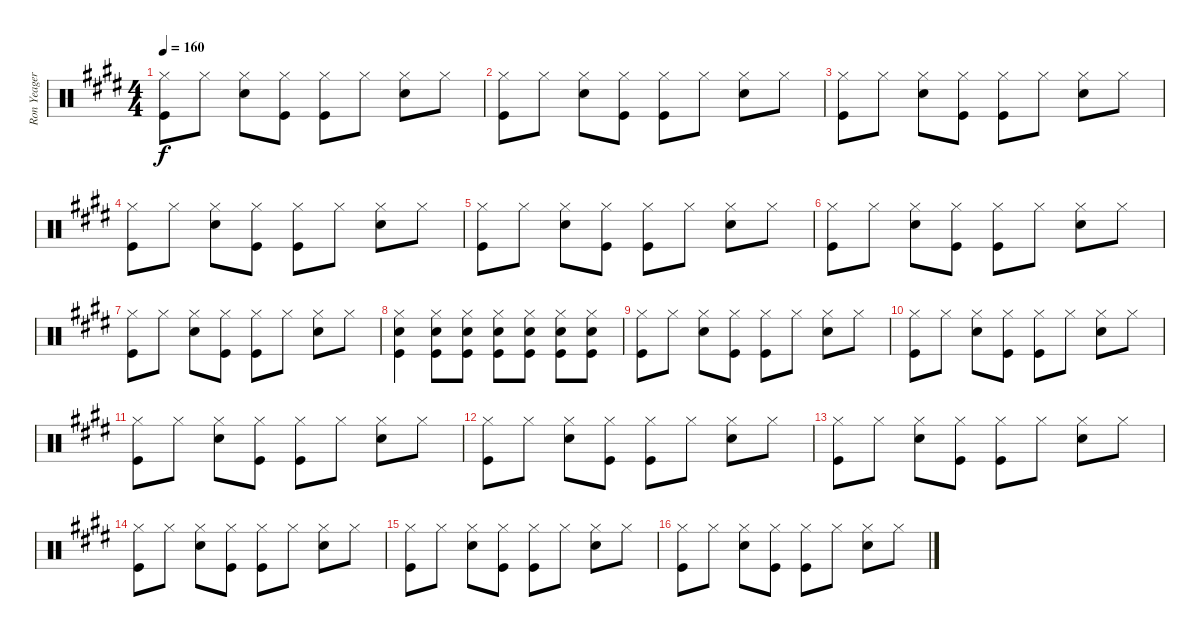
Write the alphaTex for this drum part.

\track ("Ron Yeager Drums" "Ron Yeager") {instrument percussion}
\staff {score}
\articulation defaults
\ts (4 4)
\tempo 160
\clef neutral
\ks e
("Hi-Hat (closed)" "Kick (hit)").8{dy f} "Hi-Hat (closed)".8 ("Hi-Hat (closed)" "Snare (hit) 2").8 ("Hi-Hat (closed)" "Kick (hit)").8 ("Hi-Hat (closed)" "Kick (hit)").8 "Hi-Hat (closed)".8 ("Hi-Hat (closed)" "Snare (hit) 2").8 "Hi-Hat (closed)".8 |
("Hi-Hat (closed)" "Kick (hit)").8 "Hi-Hat (closed)".8 ("Hi-Hat (closed)" "Snare (hit) 2").8 ("Hi-Hat (closed)" "Kick (hit)").8 ("Hi-Hat (closed)" "Kick (hit)").8 "Hi-Hat (closed)".8 ("Hi-Hat (closed)" "Snare (hit) 2").8 "Hi-Hat (closed)".8 |
("Hi-Hat (closed)" "Kick (hit)").8 "Hi-Hat (closed)".8 ("Hi-Hat (closed)" "Snare (hit) 2").8 ("Hi-Hat (closed)" "Kick (hit)").8 ("Hi-Hat (closed)" "Kick (hit)").8 "Hi-Hat (closed)".8 ("Hi-Hat (closed)" "Snare (hit) 2").8 "Hi-Hat (closed)".8 |
("Hi-Hat (closed)" "Kick (hit)").8 "Hi-Hat (closed)".8 ("Hi-Hat (closed)" "Snare (hit) 2").8 ("Hi-Hat (closed)" "Kick (hit)").8 ("Hi-Hat (closed)" "Kick (hit)").8 "Hi-Hat (closed)".8 ("Hi-Hat (closed)" "Snare (hit) 2").8 "Hi-Hat (closed)".8 |
("Hi-Hat (closed)" "Kick (hit)").8 "Hi-Hat (closed)".8 ("Hi-Hat (closed)" "Snare (hit) 2").8 ("Hi-Hat (closed)" "Kick (hit)").8 ("Hi-Hat (closed)" "Kick (hit)").8 "Hi-Hat (closed)".8 ("Hi-Hat (closed)" "Snare (hit) 2").8 "Hi-Hat (closed)".8 |
("Hi-Hat (closed)" "Kick (hit)").8 "Hi-Hat (closed)".8 ("Hi-Hat (closed)" "Snare (hit) 2").8 ("Hi-Hat (closed)" "Kick (hit)").8 ("Hi-Hat (closed)" "Kick (hit)").8 "Hi-Hat (closed)".8 ("Hi-Hat (closed)" "Snare (hit) 2").8 "Hi-Hat (closed)".8 |
("Hi-Hat (closed)" "Kick (hit)").8 "Hi-Hat (closed)".8 ("Hi-Hat (closed)" "Snare (hit) 2").8 ("Hi-Hat (closed)" "Kick (hit)").8 ("Hi-Hat (closed)" "Kick (hit)").8 "Hi-Hat (closed)".8 ("Hi-Hat (closed)" "Snare (hit) 2").8 "Hi-Hat (closed)".8 |
("Hi-Hat (closed)" "Snare (hit) 2" "Kick (hit)").4 ("Hi-Hat (closed)" "Snare (hit) 2" "Kick (hit)").8 ("Hi-Hat (closed)" "Snare (hit) 2" "Kick (hit)").8 ("Hi-Hat (closed)" "Snare (hit) 2" "Kick (hit)").8 ("Hi-Hat (closed)" "Snare (hit) 2" "Kick (hit)").8 ("Hi-Hat (closed)" "Snare (hit) 2" "Kick (hit)").8 ("Hi-Hat (closed)" "Snare (hit) 2" "Kick (hit)").8 |
("Hi-Hat (closed)" "Kick (hit)").8 "Hi-Hat (closed)".8 ("Hi-Hat (closed)" "Snare (hit) 2").8 ("Hi-Hat (closed)" "Kick (hit)").8 ("Hi-Hat (closed)" "Kick (hit)").8 "Hi-Hat (closed)".8 ("Hi-Hat (closed)" "Snare (hit) 2").8 "Hi-Hat (closed)".8 |
("Hi-Hat (closed)" "Kick (hit)").8 "Hi-Hat (closed)".8 ("Hi-Hat (closed)" "Snare (hit) 2").8 ("Hi-Hat (closed)" "Kick (hit)").8 ("Hi-Hat (closed)" "Kick (hit)").8 "Hi-Hat (closed)".8 ("Hi-Hat (closed)" "Snare (hit) 2").8 "Hi-Hat (closed)".8 |
("Hi-Hat (closed)" "Kick (hit)").8 "Hi-Hat (closed)".8 ("Hi-Hat (closed)" "Snare (hit) 2").8 ("Hi-Hat (closed)" "Kick (hit)").8 ("Hi-Hat (closed)" "Kick (hit)").8 "Hi-Hat (closed)".8 ("Hi-Hat (closed)" "Snare (hit) 2").8 "Hi-Hat (closed)".8 |
("Hi-Hat (closed)" "Kick (hit)").8 "Hi-Hat (closed)".8 ("Hi-Hat (closed)" "Snare (hit) 2").8 ("Hi-Hat (closed)" "Kick (hit)").8 ("Hi-Hat (closed)" "Kick (hit)").8 "Hi-Hat (closed)".8 ("Hi-Hat (closed)" "Snare (hit) 2").8 "Hi-Hat (closed)".8 |
("Hi-Hat (closed)" "Kick (hit)").8 "Hi-Hat (closed)".8 ("Hi-Hat (closed)" "Snare (hit) 2").8 ("Hi-Hat (closed)" "Kick (hit)").8 ("Hi-Hat (closed)" "Kick (hit)").8 "Hi-Hat (closed)".8 ("Hi-Hat (closed)" "Snare (hit) 2").8 "Hi-Hat (closed)".8 |
("Hi-Hat (closed)" "Kick (hit)").8 "Hi-Hat (closed)".8 ("Hi-Hat (closed)" "Snare (hit) 2").8 ("Hi-Hat (closed)" "Kick (hit)").8 ("Hi-Hat (closed)" "Kick (hit)").8 "Hi-Hat (closed)".8 ("Hi-Hat (closed)" "Snare (hit) 2").8 "Hi-Hat (closed)".8 |
("Hi-Hat (closed)" "Kick (hit)").8 "Hi-Hat (closed)".8 ("Hi-Hat (closed)" "Snare (hit) 2").8 ("Hi-Hat (closed)" "Kick (hit)").8 ("Hi-Hat (closed)" "Kick (hit)").8 "Hi-Hat (closed)".8 ("Hi-Hat (closed)" "Snare (hit) 2").8 "Hi-Hat (closed)".8 |
("Hi-Hat (closed)" "Kick (hit)").8 "Hi-Hat (closed)".8 ("Hi-Hat (closed)" "Snare (hit) 2").8 ("Hi-Hat (closed)" "Kick (hit)").8 ("Hi-Hat (closed)" "Kick (hit)").8 "Hi-Hat (closed)".8 ("Hi-Hat (closed)" "Snare (hit) 2").8 "Hi-Hat (closed)".8
